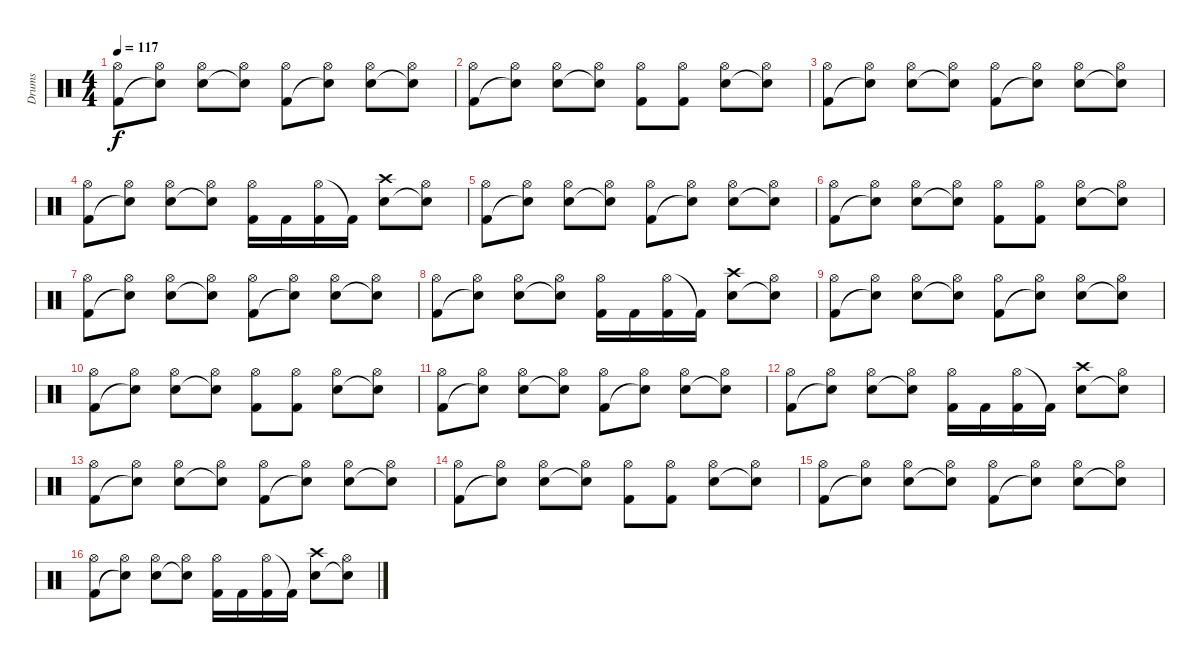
\track ("Drums" "Drums") {instrument percussion}
\staff {score}
\articulation defaults
\ts (4 4)
\tempo 117
\clef neutral
\ks c
("Hi-Hat (open)" "Kick (hit) 2").8{dy f} ("Hi-Hat (open)" "Snare (hit)"{t}).8 ("Hi-Hat (open)" "Electric Snare (hit)").8 ("Hi-Hat (open)" "Snare (hit)"{t}).8 ("Hi-Hat (open)" "Kick (hit) 2").8 ("Hi-Hat (open)" "Snare (hit)"{t}).8 ("Hi-Hat (open)" "Electric Snare (hit)").8 ("Hi-Hat (open)" "Snare (hit)"{t}).8 |
("Hi-Hat (open)" "Kick (hit) 2").8 ("Hi-Hat (open)" "Snare (hit)"{t}).8 ("Hi-Hat (open)" "Electric Snare (hit)").8 ("Hi-Hat (open)" "Snare (hit)"{t}).8 ("Hi-Hat (open)" "Kick (hit) 2").8 ("Hi-Hat (open)" "Kick (hit) 2").8 ("Hi-Hat (open)" "Electric Snare (hit)").8 ("Hi-Hat (open)" "Snare (hit)"{t}).8 |
("Hi-Hat (open)" "Kick (hit) 2").8 ("Hi-Hat (open)" "Snare (hit)"{t}).8 ("Hi-Hat (open)" "Electric Snare (hit)").8 ("Hi-Hat (open)" "Snare (hit)"{t}).8 ("Hi-Hat (open)" "Kick (hit) 2").8 ("Hi-Hat (open)" "Snare (hit)"{t}).8 ("Hi-Hat (open)" "Electric Snare (hit)").8 ("Hi-Hat (open)" "Snare (hit)"{t}).8 |
("Hi-Hat (open)" "Kick (hit) 2").8 ("Hi-Hat (open)" "Snare (hit)"{t}).8 ("Hi-Hat (open)" "Electric Snare (hit)").8 ("Hi-Hat (open)" "Snare (hit)"{t}).8 ("Hi-Hat (open)" "Kick (hit) 2").16 "Kick (hit) 2".16 ("Hi-Hat (open)" "Kick (hit) 2").16 "Kick (hit) 2"{t}.16 ("Crash high (hit)" "Electric Snare (hit)").8 ("Hi-Hat (open)" "Snare (hit)"{t}).8 |
("Hi-Hat (open)" "Kick (hit) 2").8 ("Hi-Hat (open)" "Snare (hit)"{t}).8 ("Hi-Hat (open)" "Electric Snare (hit)").8 ("Hi-Hat (open)" "Snare (hit)"{t}).8 ("Hi-Hat (open)" "Kick (hit) 2").8 ("Hi-Hat (open)" "Snare (hit)"{t}).8 ("Hi-Hat (open)" "Electric Snare (hit)").8 ("Hi-Hat (open)" "Snare (hit)"{t}).8 |
("Hi-Hat (open)" "Kick (hit) 2").8 ("Hi-Hat (open)" "Snare (hit)"{t}).8 ("Hi-Hat (open)" "Electric Snare (hit)").8 ("Hi-Hat (open)" "Snare (hit)"{t}).8 ("Hi-Hat (open)" "Kick (hit) 2").8 ("Hi-Hat (open)" "Kick (hit) 2").8 ("Hi-Hat (open)" "Electric Snare (hit)").8 ("Hi-Hat (open)" "Snare (hit)"{t}).8 |
("Hi-Hat (open)" "Kick (hit) 2").8 ("Hi-Hat (open)" "Snare (hit)"{t}).8 ("Hi-Hat (open)" "Electric Snare (hit)").8 ("Hi-Hat (open)" "Snare (hit)"{t}).8 ("Hi-Hat (open)" "Kick (hit) 2").8 ("Hi-Hat (open)" "Snare (hit)"{t}).8 ("Hi-Hat (open)" "Electric Snare (hit)").8 ("Hi-Hat (open)" "Snare (hit)"{t}).8 |
("Hi-Hat (open)" "Kick (hit) 2").8 ("Hi-Hat (open)" "Snare (hit)"{t}).8 ("Hi-Hat (open)" "Electric Snare (hit)").8 ("Hi-Hat (open)" "Snare (hit)"{t}).8 ("Hi-Hat (open)" "Kick (hit) 2").16 "Kick (hit) 2".16 ("Hi-Hat (open)" "Kick (hit) 2").16 "Kick (hit) 2"{t}.16 ("Crash high (hit)" "Electric Snare (hit)").8 ("Hi-Hat (open)" "Snare (hit)"{t}).8 |
("Hi-Hat (open)" "Kick (hit) 2").8 ("Hi-Hat (open)" "Snare (hit)"{t}).8 ("Hi-Hat (open)" "Electric Snare (hit)").8 ("Hi-Hat (open)" "Snare (hit)"{t}).8 ("Hi-Hat (open)" "Kick (hit) 2").8 ("Hi-Hat (open)" "Snare (hit)"{t}).8 ("Hi-Hat (open)" "Electric Snare (hit)").8 ("Hi-Hat (open)" "Snare (hit)"{t}).8 |
("Hi-Hat (open)" "Kick (hit) 2").8 ("Hi-Hat (open)" "Snare (hit)"{t}).8 ("Hi-Hat (open)" "Electric Snare (hit)").8 ("Hi-Hat (open)" "Snare (hit)"{t}).8 ("Hi-Hat (open)" "Kick (hit) 2").8 ("Hi-Hat (open)" "Kick (hit) 2").8 ("Hi-Hat (open)" "Electric Snare (hit)").8 ("Hi-Hat (open)" "Snare (hit)"{t}).8 |
("Hi-Hat (open)" "Kick (hit) 2").8 ("Hi-Hat (open)" "Snare (hit)"{t}).8 ("Hi-Hat (open)" "Electric Snare (hit)").8 ("Hi-Hat (open)" "Snare (hit)"{t}).8 ("Hi-Hat (open)" "Kick (hit) 2").8 ("Hi-Hat (open)" "Snare (hit)"{t}).8 ("Hi-Hat (open)" "Electric Snare (hit)").8 ("Hi-Hat (open)" "Snare (hit)"{t}).8 |
("Hi-Hat (open)" "Kick (hit) 2").8 ("Hi-Hat (open)" "Snare (hit)"{t}).8 ("Hi-Hat (open)" "Electric Snare (hit)").8 ("Hi-Hat (open)" "Snare (hit)"{t}).8 ("Hi-Hat (open)" "Kick (hit) 2").16 "Kick (hit) 2".16 ("Hi-Hat (open)" "Kick (hit) 2").16 "Kick (hit) 2"{t}.16 ("Crash high (hit)" "Electric Snare (hit)").8 ("Hi-Hat (open)" "Snare (hit)"{t}).8 |
("Hi-Hat (open)" "Kick (hit) 2").8 ("Hi-Hat (open)" "Snare (hit)"{t}).8 ("Hi-Hat (open)" "Electric Snare (hit)").8 ("Hi-Hat (open)" "Snare (hit)"{t}).8 ("Hi-Hat (open)" "Kick (hit) 2").8 ("Hi-Hat (open)" "Snare (hit)"{t}).8 ("Hi-Hat (open)" "Electric Snare (hit)").8 ("Hi-Hat (open)" "Snare (hit)"{t}).8 |
("Hi-Hat (open)" "Kick (hit) 2").8 ("Hi-Hat (open)" "Snare (hit)"{t}).8 ("Hi-Hat (open)" "Electric Snare (hit)").8 ("Hi-Hat (open)" "Snare (hit)"{t}).8 ("Hi-Hat (open)" "Kick (hit) 2").8 ("Hi-Hat (open)" "Kick (hit) 2").8 ("Hi-Hat (open)" "Electric Snare (hit)").8 ("Hi-Hat (open)" "Snare (hit)"{t}).8 |
("Hi-Hat (open)" "Kick (hit) 2").8 ("Hi-Hat (open)" "Snare (hit)"{t}).8 ("Hi-Hat (open)" "Electric Snare (hit)").8 ("Hi-Hat (open)" "Snare (hit)"{t}).8 ("Hi-Hat (open)" "Kick (hit) 2").8 ("Hi-Hat (open)" "Snare (hit)"{t}).8 ("Hi-Hat (open)" "Electric Snare (hit)").8 ("Hi-Hat (open)" "Snare (hit)"{t}).8 |
("Hi-Hat (open)" "Kick (hit) 2").8 ("Hi-Hat (open)" "Snare (hit)"{t}).8 ("Hi-Hat (open)" "Electric Snare (hit)").8 ("Hi-Hat (open)" "Snare (hit)"{t}).8 ("Hi-Hat (open)" "Kick (hit) 2").16 "Kick (hit) 2".16 ("Hi-Hat (open)" "Kick (hit) 2").16 "Kick (hit) 2"{t}.16 ("Crash high (hit)" "Electric Snare (hit)").8 ("Hi-Hat (open)" "Snare (hit)"{t}).8
